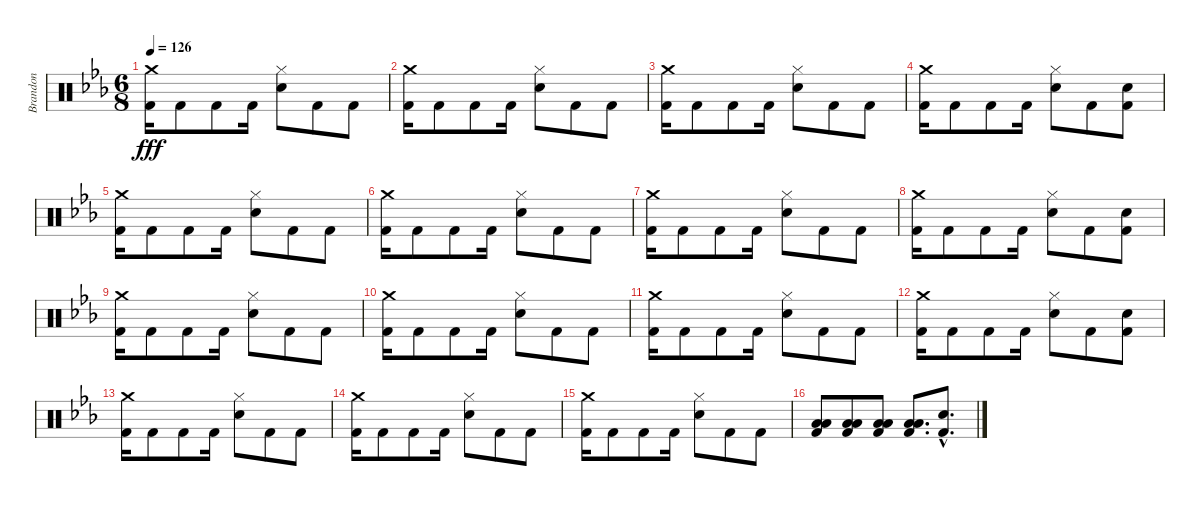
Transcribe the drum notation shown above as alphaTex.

\track ("Brandon" "Brandon") {instrument percussion}
\staff {score}
\articulation defaults
\ts (6 8)
\tempo 126
\clef neutral
\ks cminor
("Crash medium (hit)" "Kick (hit) 2").16{dy fff} "Kick (hit) 2".8 "Kick (hit) 2".8 "Kick (hit) 2".16 ("Hi-Hat (closed)" "Electric Snare (hit)").8 "Kick (hit) 2".8 "Kick (hit) 2".8 |
("Crash medium (hit)" "Kick (hit) 2").16 "Kick (hit) 2".8 "Kick (hit) 2".8 "Kick (hit) 2".16 ("Hi-Hat (closed)" "Electric Snare (hit)").8 "Kick (hit) 2".8 "Kick (hit) 2".8 |
("Crash medium (hit)" "Kick (hit) 2").16 "Kick (hit) 2".8 "Kick (hit) 2".8 "Kick (hit) 2".16 ("Hi-Hat (closed)" "Electric Snare (hit)").8 "Kick (hit) 2".8 "Kick (hit) 2".8 |
("Crash medium (hit)" "Kick (hit) 2").16 "Kick (hit) 2".8 "Kick (hit) 2".8 "Kick (hit) 2".16 ("Hi-Hat (closed)" "Electric Snare (hit)").8 "Kick (hit) 2".8 ("Electric Snare (hit)" "Kick (hit) 2").8 |
("Crash medium (hit)" "Kick (hit) 2").16 "Kick (hit) 2".8 "Kick (hit) 2".8 "Kick (hit) 2".16 ("Hi-Hat (closed)" "Electric Snare (hit)").8 "Kick (hit) 2".8 "Kick (hit) 2".8 |
("Crash medium (hit)" "Kick (hit) 2").16 "Kick (hit) 2".8 "Kick (hit) 2".8 "Kick (hit) 2".16 ("Hi-Hat (closed)" "Electric Snare (hit)").8 "Kick (hit) 2".8 "Kick (hit) 2".8 |
("Crash medium (hit)" "Kick (hit) 2").16 "Kick (hit) 2".8 "Kick (hit) 2".8 "Kick (hit) 2".16 ("Hi-Hat (closed)" "Electric Snare (hit)").8 "Kick (hit) 2".8 "Kick (hit) 2".8 |
("Crash medium (hit)" "Kick (hit) 2").16 "Kick (hit) 2".8 "Kick (hit) 2".8 "Kick (hit) 2".16 ("Hi-Hat (closed)" "Electric Snare (hit)").8 "Kick (hit) 2".8 ("Electric Snare (hit)" "Kick (hit) 2").8 |
("Crash medium (hit)" "Kick (hit) 2").16 "Kick (hit) 2".8 "Kick (hit) 2".8 "Kick (hit) 2".16 ("Hi-Hat (closed)" "Electric Snare (hit)").8 "Kick (hit) 2".8 "Kick (hit) 2".8 |
("Crash medium (hit)" "Kick (hit) 2").16 "Kick (hit) 2".8 "Kick (hit) 2".8 "Kick (hit) 2".16 ("Hi-Hat (closed)" "Electric Snare (hit)").8 "Kick (hit) 2".8 "Kick (hit) 2".8 |
("Crash medium (hit)" "Kick (hit) 2").16 "Kick (hit) 2".8 "Kick (hit) 2".8 "Kick (hit) 2".16 ("Hi-Hat (closed)" "Electric Snare (hit)").8 "Kick (hit) 2".8 "Kick (hit) 2".8 |
("Crash medium (hit)" "Kick (hit) 2").16 "Kick (hit) 2".8 "Kick (hit) 2".8 "Kick (hit) 2".16 ("Hi-Hat (closed)" "Electric Snare (hit)").8 "Kick (hit) 2".8 ("Electric Snare (hit)" "Kick (hit) 2").8 |
("Crash medium (hit)" "Kick (hit) 2").16 "Kick (hit) 2".8 "Kick (hit) 2".8 "Kick (hit) 2".16 ("Hi-Hat (closed)" "Electric Snare (hit)").8 "Kick (hit) 2".8 "Kick (hit) 2".8 |
("Crash medium (hit)" "Kick (hit) 2").16 "Kick (hit) 2".8 "Kick (hit) 2".8 "Kick (hit) 2".16 ("Hi-Hat (closed)" "Electric Snare (hit)").8 "Kick (hit) 2".8 "Kick (hit) 2".8 |
("Crash medium (hit)" "Kick (hit) 2").16 "Kick (hit) 2".8 "Kick (hit) 2".8 "Kick (hit) 2".16 ("Hi-Hat (closed)" "Electric Snare (hit)").8 "Kick (hit) 2".8 "Kick (hit) 2".8 |
("Low Tom (hit)" "Low Floor Tom (hit)" "Kick (hit) 2").8 ("Low Tom (hit)" "Low Floor Tom (hit)" "Kick (hit) 2").8 ("Low Tom (hit)" "Low Floor Tom (hit)" "Kick (hit) 2").8 ("Low Tom (hit)" "Low Floor Tom (hit)" "Kick (hit) 2").8{d} ("Electric Snare (hit)"{hac} "Kick (hit) 2").8{d}
